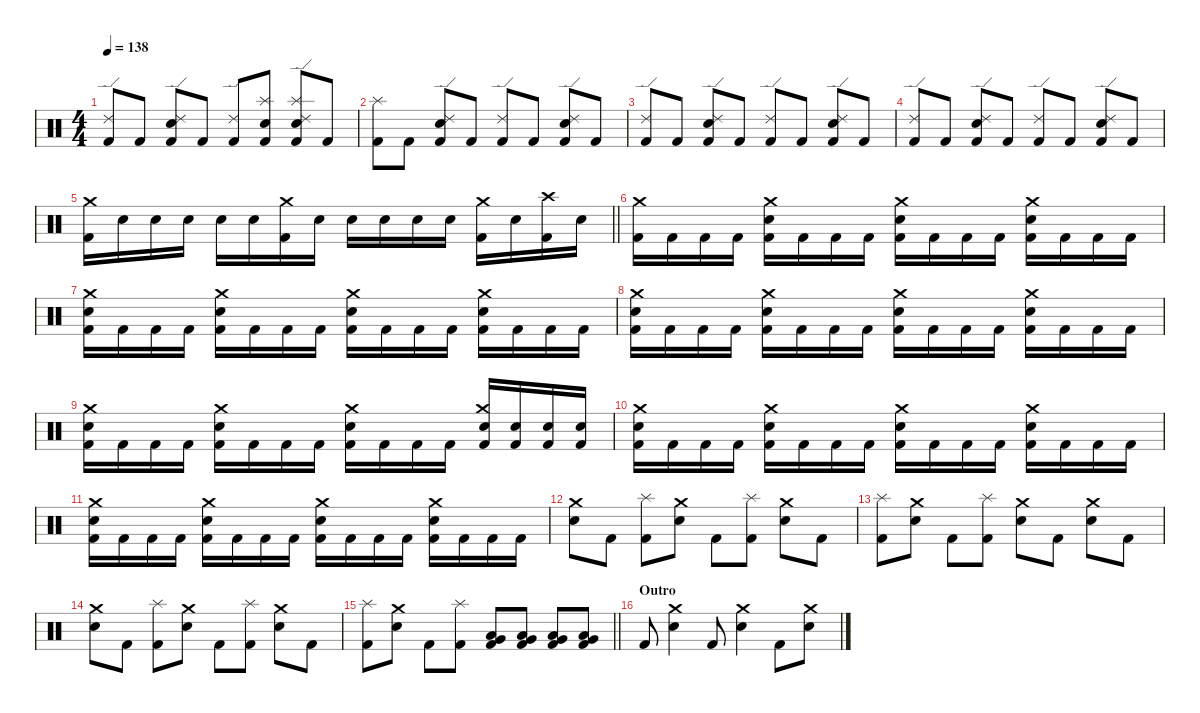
\defaultSystemsLayout 4
\hideDynamics
\bracketExtendMode nobrackets
\singleTrackTrackNamePolicy hidden
\multiTrackTrackNamePolicy hidden
\firstSystemTrackNameMode fullname
\firstSystemTrackNameOrientation horizontal
\otherSystemsTrackNameOrientation horizontal
\track ("Drums" "drm.") {instrument percussion}
\staff {score}
\articulation defaults
\ts (4 4)
\tempo 138
\clef neutral
\ks c
("Ride (edge) 2" "Kick (hit) 2").8{dy f beam Up} "Kick (hit) 2".8{beam Up} ("Ride (edge) 2" "Snare (hit) 2" "Kick (hit) 2").8{beam Up} "Kick (hit) 2".8{beam Up} ("Ride (edge) 2" "Kick (hit) 2").8{beam Up} ("Splash (hit)" "Snare (hit) 2" "Kick (hit) 2").8{beam Up} ("Splash (hit)" "Ride (edge) 2" "Snare (hit) 2" "Kick (hit) 2").8{beam Up} "Kick (hit) 2".8{beam Up} |
("Splash (hit)" "Kick (hit) 2").8{beam Down} "Kick (hit) 2".8{beam Down} ("Ride (edge) 2" "Snare (hit) 2" "Kick (hit) 2").8{beam Up} "Kick (hit) 2".8{beam Up} ("Ride (edge) 2" "Kick (hit) 2").8{beam Up} "Kick (hit) 2".8{beam Up} ("Ride (edge) 2" "Snare (hit) 2" "Kick (hit) 2").8{beam Up} "Kick (hit) 2".8{beam Up} |
("Ride (edge) 2" "Kick (hit) 2").8{beam Up} "Kick (hit) 2".8{beam Up} ("Ride (edge) 2" "Snare (hit) 2" "Kick (hit) 2").8{beam Up} "Kick (hit) 2".8{beam Up} ("Ride (edge) 2" "Kick (hit) 2").8{beam Up} "Kick (hit) 2".8{beam Up} ("Ride (edge) 2" "Snare (hit) 2" "Kick (hit) 2").8{beam Up} "Kick (hit) 2".8{beam Up} |
("Ride (edge) 2" "Kick (hit) 2").8{beam Up} "Kick (hit) 2".8{beam Up} ("Ride (edge) 2" "Snare (hit) 2" "Kick (hit) 2").8{beam Up} "Kick (hit) 2".8{beam Up} ("Ride (edge) 2" "Kick (hit) 2").8{beam Up} "Kick (hit) 2".8{beam Up} ("Ride (edge) 2" "Snare (hit) 2" "Kick (hit) 2").8{beam Up} "Kick (hit) 2".8{beam Up} |
\barLineRight lightlight
("Crash medium (hit)" "Kick (hit) 2").16{beam Down} "Snare (hit) 2".16{beam Down} "Snare (hit) 2".16{beam Down} "Snare (hit) 2".16{beam Down} "Snare (hit) 2".16{beam Down} "Snare (hit) 2".16{beam Down} ("Crash medium (hit)" "Kick (hit) 2").16{beam Down} "Snare (hit) 2".16{beam Down} "Snare (hit) 2".16{beam Down} "Snare (hit) 2".16{beam Down} "Snare (hit) 2".16{beam Down} "Snare (hit) 2".16{beam Down} ("Crash medium (hit)" "Kick (hit) 2").16{beam Down} "Snare (hit) 2".16{beam Down} ("Crash high (hit)" "Kick (hit) 2").16{beam Down} "Snare (hit) 2".16{beam Down} |
\section ("" "")
("Crash medium (hit)" "Kick (hit) 2").16{beam Down} "Kick (hit) 2".16{beam Down} "Kick (hit) 2".16{beam Down} "Kick (hit) 2".16{beam Down} ("Crash medium (hit)" "Snare (hit) 2" "Kick (hit) 2").16{beam Down} "Kick (hit) 2".16{beam Down} "Kick (hit) 2".16{beam Down} "Kick (hit) 2".16{beam Down} ("Crash medium (hit)" "Snare (hit) 2" "Kick (hit) 2").16{beam Down} "Kick (hit) 2".16{beam Down} "Kick (hit) 2".16{beam Down} "Kick (hit) 2".16{beam Down} ("Crash medium (hit)" "Snare (hit) 2" "Kick (hit) 2").16{beam Down} "Kick (hit) 2".16{beam Down} "Kick (hit) 2".16{beam Down} "Kick (hit) 2".16{beam Down} |
("Crash medium (hit)" "Snare (hit) 2" "Kick (hit) 2").16{beam Down} "Kick (hit) 2".16{beam Down} "Kick (hit) 2".16{beam Down} "Kick (hit) 2".16{beam Down} ("Crash medium (hit)" "Snare (hit) 2" "Kick (hit) 2").16{beam Down} "Kick (hit) 2".16{beam Down} "Kick (hit) 2".16{beam Down} "Kick (hit) 2".16{beam Down} ("Crash medium (hit)" "Snare (hit) 2" "Kick (hit) 2").16{beam Down} "Kick (hit) 2".16{beam Down} "Kick (hit) 2".16{beam Down} "Kick (hit) 2".16{beam Down} ("Crash medium (hit)" "Snare (hit) 2" "Kick (hit) 2").16{beam Down} "Kick (hit) 2".16{beam Down} "Kick (hit) 2".16{beam Down} "Kick (hit) 2".16{beam Down} |
("Crash medium (hit)" "Snare (hit) 2" "Kick (hit) 2").16{beam Down} "Kick (hit) 2".16{beam Down} "Kick (hit) 2".16{beam Down} "Kick (hit) 2".16{beam Down} ("Crash medium (hit)" "Snare (hit) 2" "Kick (hit) 2").16{beam Down} "Kick (hit) 2".16{beam Down} "Kick (hit) 2".16{beam Down} "Kick (hit) 2".16{beam Down} ("Crash medium (hit)" "Snare (hit) 2" "Kick (hit) 2").16{beam Down} "Kick (hit) 2".16{beam Down} "Kick (hit) 2".16{beam Down} "Kick (hit) 2".16{beam Down} ("Crash medium (hit)" "Snare (hit) 2" "Kick (hit) 2").16{beam Down} "Kick (hit) 2".16{beam Down} "Kick (hit) 2".16{beam Down} "Kick (hit) 2".16{beam Down} |
("Crash medium (hit)" "Snare (hit) 2" "Kick (hit) 2").16{beam Down} "Kick (hit) 2".16{beam Down} "Kick (hit) 2".16{beam Down} "Kick (hit) 2".16{beam Down} ("Crash medium (hit)" "Snare (hit) 2" "Kick (hit) 2").16{beam Down} "Kick (hit) 2".16{beam Down} "Kick (hit) 2".16{beam Down} "Kick (hit) 2".16{beam Down} ("Crash medium (hit)" "Snare (hit) 2" "Kick (hit) 2").16{beam Down} "Kick (hit) 2".16{beam Down} "Kick (hit) 2".16{beam Down} "Kick (hit) 2".16{beam Down} ("Crash medium (hit)" "Snare (hit) 2" "Kick (hit) 2").16{beam Up} ("Snare (hit) 2" "Kick (hit) 2").16{beam Up} ("Snare (hit) 2" "Kick (hit) 2").16{beam Up} ("Snare (hit) 2" "Kick (hit) 2").16{beam Up} |
("Crash medium (hit)" "Snare (hit) 2" "Kick (hit) 2").16{beam Down} "Kick (hit) 2".16{beam Down} "Kick (hit) 2".16{beam Down} "Kick (hit) 2".16{beam Down} ("Crash medium (hit)" "Snare (hit) 2" "Kick (hit) 2").16{beam Down} "Kick (hit) 2".16{beam Down} "Kick (hit) 2".16{beam Down} "Kick (hit) 2".16{beam Down} ("Crash medium (hit)" "Snare (hit) 2" "Kick (hit) 2").16{beam Down} "Kick (hit) 2".16{beam Down} "Kick (hit) 2".16{beam Down} "Kick (hit) 2".16{beam Down} ("Crash medium (hit)" "Snare (hit) 2" "Kick (hit) 2").16{beam Down} "Kick (hit) 2".16{beam Down} "Kick (hit) 2".16{beam Down} "Kick (hit) 2".16{beam Down} |
("Crash medium (hit)" "Snare (hit) 2" "Kick (hit) 2").16{beam Down} "Kick (hit) 2".16{beam Down} "Kick (hit) 2".16{beam Down} "Kick (hit) 2".16{beam Down} ("Crash medium (hit)" "Snare (hit) 2" "Kick (hit) 2").16{beam Down} "Kick (hit) 2".16{beam Down} "Kick (hit) 2".16{beam Down} "Kick (hit) 2".16{beam Down} ("Crash medium (hit)" "Snare (hit) 2" "Kick (hit) 2").16{beam Down} "Kick (hit) 2".16{beam Down} "Kick (hit) 2".16{beam Down} "Kick (hit) 2".16{beam Down} ("Crash medium (hit)" "Snare (hit) 2" "Kick (hit) 2").16{beam Down} "Kick (hit) 2".16{beam Down} "Kick (hit) 2".16{beam Down} "Kick (hit) 2".16{beam Down} |
("Crash medium (hit)" "Snare (hit) 2").8{beam Down} "Kick (hit) 2".8{beam Down} ("Splash (hit)" "Kick (hit) 2").8{beam Down} ("Crash medium (hit)" "Snare (hit) 2").8{beam Down} "Kick (hit) 2".8{beam Down} ("Splash (hit)" "Kick (hit) 2").8{beam Down} ("Crash medium (hit)" "Snare (hit) 2").8{beam Down} "Kick (hit) 2".8{beam Down} |
("Splash (hit)" "Kick (hit) 2").8{beam Down} ("Crash medium (hit)" "Snare (hit) 2").8{beam Down} "Kick (hit) 2".8{beam Down} ("Splash (hit)" "Kick (hit) 2").8{beam Down} ("Crash medium (hit)" "Snare (hit) 2").8{beam Down} "Kick (hit) 2".8{beam Down} ("Crash medium (hit)" "Snare (hit) 2").8{beam Down} "Kick (hit) 2".8{beam Down} |
("Crash medium (hit)" "Snare (hit) 2").8{beam Down} "Kick (hit) 2".8{beam Down} ("Splash (hit)" "Kick (hit) 2").8{beam Down} ("Crash medium (hit)" "Snare (hit) 2").8{beam Down} "Kick (hit) 2".8{beam Down} ("Splash (hit)" "Kick (hit) 2").8{beam Down} ("Crash medium (hit)" "Snare (hit) 2").8{beam Down} "Kick (hit) 2".8{beam Down} |
\barLineRight lightlight
("Splash (hit)" "Kick (hit) 2").8{beam Down} ("Crash medium (hit)" "Snare (hit) 2").8{beam Down} "Kick (hit) 2".8{beam Down} ("Splash (hit)" "Kick (hit) 2").8{beam Down} ("Low Tom (hit)" "Very Low Tom (hit)" "Kick (hit) 2").8{beam Up} ("Low Tom (hit)" "Very Low Tom (hit)" "Kick (hit) 2").8{beam Up} ("Low Tom (hit)" "Very Low Tom (hit)" "Kick (hit) 2").8{beam Up} ("Low Tom (hit)" "Very Low Tom (hit)" "Kick (hit) 2").8{beam Up} |
\section ("" "Outro")
"Kick (hit) 2".8{beam Up} ("Crash medium (hit)" "Snare (hit) 2").4{beam Down} "Kick (hit) 2".8{beam Up} ("Crash medium (hit)" "Snare (hit) 2").4{beam Down} "Kick (hit) 2".8{beam Down} ("Crash medium (hit)" "Snare (hit) 2").8{beam Down}
